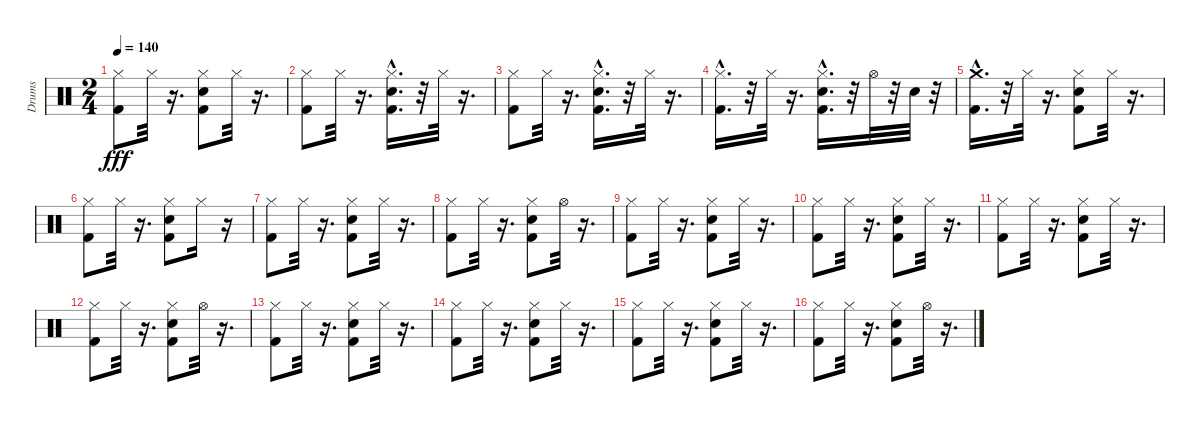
\track ("Drums" "Drums") {instrument percussion}
\staff {score}
\articulation defaults
\ts (2 4)
\tempo 140
\clef neutral
\ks c
("Kick (hit) 2" "Hi-Hat (closed)").8{dy fff} "Hi-Hat (closed)".32 r.16{d} ("Hi-Hat (closed)" "Snare (hit) 2" "Kick (hit) 2").8 "Hi-Hat (closed)".32 r.16{d} |
("Kick (hit) 2" "Hi-Hat (closed)").8 "Hi-Hat (closed)".32 r.16{d} ("Snare (hit) 2"{hac} "Kick (hit) 2"{hac} "Hi-Hat (closed)").16{d} r.32 "Hi-Hat (closed)".32 r.16{d} |
("Kick (hit) 2" "Hi-Hat (closed)").8 "Hi-Hat (closed)".32 r.16{d} ("Snare (hit) 2"{hac} "Kick (hit) 2"{hac} "Hi-Hat (closed)").16{d} r.32 "Hi-Hat (closed)".32 r.16{d} |
("Kick (hit) 2"{hac} "Hi-Hat (closed)").16{d} r.32 "Hi-Hat (closed)".32 r.16{d} ("Snare (hit) 2"{hac} "Kick (hit) 2"{hac} "Hi-Hat (closed)").16{d} r.32 "Hi-Hat (open)".32 r.32 "Snare (hit) 2".32 r.32 |
("Kick (hit) 2"{hac} "Crash medium (hit)").16{d} r.32 "Hi-Hat (closed)".32 r.16{d} ("Kick (hit) 2" "Snare (hit) 2" "Hi-Hat (closed)").8 "Hi-Hat (closed)".32 r.16{d} |
("Kick (hit) 2" "Hi-Hat (closed)").8 "Hi-Hat (closed)".32 r.16{d} ("Kick (hit) 2" "Hi-Hat (closed)" "Snare (hit) 2").8 "Hi-Hat (closed)".16 r.16 |
("Kick (hit) 2" "Hi-Hat (closed)").8 "Hi-Hat (closed)".32 r.16{d} ("Snare (hit) 2" "Kick (hit) 2" "Hi-Hat (closed)").8 "Hi-Hat (closed)".32 r.16{d} |
("Kick (hit) 2" "Hi-Hat (closed)").8 "Hi-Hat (closed)".32 r.16{d} ("Snare (hit) 2" "Hi-Hat (closed)" "Kick (hit) 2").8 "Hi-Hat (open)".32 r.16{d} |
("Kick (hit) 2" "Hi-Hat (closed)").8 "Hi-Hat (closed)".32 r.16{d} ("Hi-Hat (closed)" "Snare (hit) 2" "Kick (hit) 2").8 "Hi-Hat (closed)".32 r.16{d} |
("Kick (hit) 2" "Hi-Hat (closed)").8 "Hi-Hat (closed)".32 r.16{d} ("Snare (hit) 2" "Kick (hit) 2" "Hi-Hat (closed)").8 "Hi-Hat (closed)".32 r.16{d} |
("Kick (hit) 2" "Hi-Hat (closed)").8 "Hi-Hat (closed)".32 r.16{d} ("Hi-Hat (closed)" "Snare (hit) 2" "Kick (hit) 2").8 "Hi-Hat (closed)".32 r.16{d} |
("Kick (hit) 2" "Hi-Hat (closed)").8 "Hi-Hat (closed)".32 r.16{d} ("Kick (hit) 2" "Snare (hit) 2" "Hi-Hat (closed)").8 "Hi-Hat (open)".32 r.16{d} |
("Kick (hit) 2" "Hi-Hat (closed)").8 "Hi-Hat (closed)".32 r.16{d} ("Kick (hit) 2" "Hi-Hat (closed)" "Snare (hit) 2").8 "Hi-Hat (closed)".32 r.16{d} |
("Kick (hit) 2" "Hi-Hat (closed)").8 "Hi-Hat (closed)".32 r.16{d} ("Hi-Hat (closed)" "Snare (hit) 2" "Kick (hit) 2").8 "Hi-Hat (closed)".32 r.16{d} |
("Kick (hit) 2" "Hi-Hat (closed)").8 "Hi-Hat (closed)".32 r.16{d} ("Snare (hit) 2" "Kick (hit) 2" "Hi-Hat (closed)").8 "Hi-Hat (closed)".32 r.16{d} |
("Kick (hit) 2" "Hi-Hat (closed)").8 "Hi-Hat (closed)".32 r.16{d} ("Kick (hit) 2" "Hi-Hat (closed)" "Snare (hit) 2").8 "Hi-Hat (open)".32 r.16{d}
